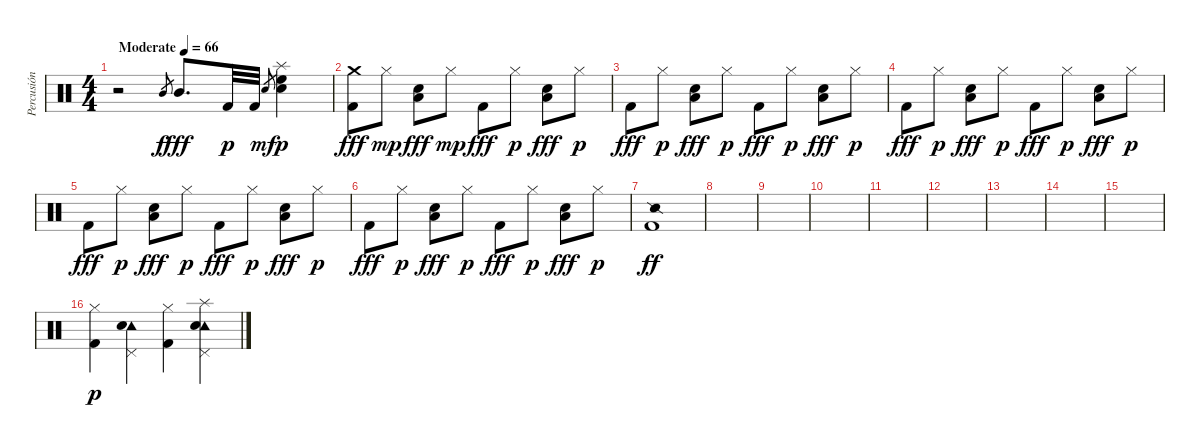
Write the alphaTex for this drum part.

\track ("Percusión" "Percusión") {instrument percussion}
\staff {score}
\articulation defaults
\ts (4 4)
\tempo (66 "Moderate")
\clef neutral
\ks c
r.2{dy f} "Mid Tom (hit)".8{gr} "Mid Tom (hit)".8{d dy fff} "Kick (hit) 2".32{dy p} "Kick (hit) 2".32 "Electric Snare (hit)".8{gr dy mf} ("Electric Snare (hit)" "High Floor Tom (hit)" "Splash (hit)").4{dy p} |
("Crash medium (hit)" "Kick (hit) 2").8{dy fff} "Hi-Hat (closed)".8{dy mp} ("Electric Snare (hit)" "Low Floor Tom (hit)").8{dy fff} "Hi-Hat (closed)".8{dy mp} "Kick (hit) 2".8{dy fff} "Hi-Hat (closed)".8{dy p} ("Electric Snare (hit)" "Low Floor Tom (hit)").8{dy fff} "Hi-Hat (closed)".8{dy p} |
"Kick (hit) 2".8{dy fff} "Hi-Hat (closed)".8{dy p} ("Electric Snare (hit)" "Low Floor Tom (hit)").8{dy fff} "Hi-Hat (closed)".8{dy p} "Kick (hit) 2".8{dy fff} "Hi-Hat (closed)".8{dy p} ("Electric Snare (hit)" "Low Floor Tom (hit)").8{dy fff} "Hi-Hat (closed)".8{dy p} |
"Kick (hit) 2".8{dy fff} "Hi-Hat (closed)".8{dy p} ("Electric Snare (hit)" "Low Floor Tom (hit)").8{dy fff} "Hi-Hat (closed)".8{dy p} "Kick (hit) 2".8{dy fff} "Hi-Hat (closed)".8{dy p} ("Electric Snare (hit)" "Low Floor Tom (hit)").8{dy fff} "Hi-Hat (closed)".8{dy p} |
"Kick (hit) 2".8{dy fff} "Hi-Hat (closed)".8{dy p} ("Electric Snare (hit)" "Low Floor Tom (hit)").8{dy fff} "Hi-Hat (closed)".8{dy p} "Kick (hit) 2".8{dy fff} "Hi-Hat (closed)".8{dy p} ("Electric Snare (hit)" "Low Floor Tom (hit)").8{dy fff} "Hi-Hat (closed)".8{dy p} |
"Kick (hit) 2".8{dy fff} "Hi-Hat (closed)".8{dy p} ("Electric Snare (hit)" "Low Floor Tom (hit)").8{dy fff} "Hi-Hat (closed)".8{dy p} "Kick (hit) 2".8{dy fff} "Hi-Hat (closed)".8{dy p} ("Electric Snare (hit)" "Low Floor Tom (hit)").8{dy fff} "Hi-Hat (closed)".8{dy p} |
("Kick (hit) 2" "Snare (side stick) 2").1{dy ff} |
|
|
|
|
|
|
|
|
("Kick (hit) 2" "Hi-Hat (closed)").4{dy p} ("Pedal Hi-Hat (hit)" "Tambourine (hit)" "Electric Snare (hit)").4 ("Kick (hit) 2" "Hi-Hat (closed)").4 ("Pedal Hi-Hat (hit)" "Tambourine (hit)" "Electric Snare (hit)" "Splash (hit)").4
